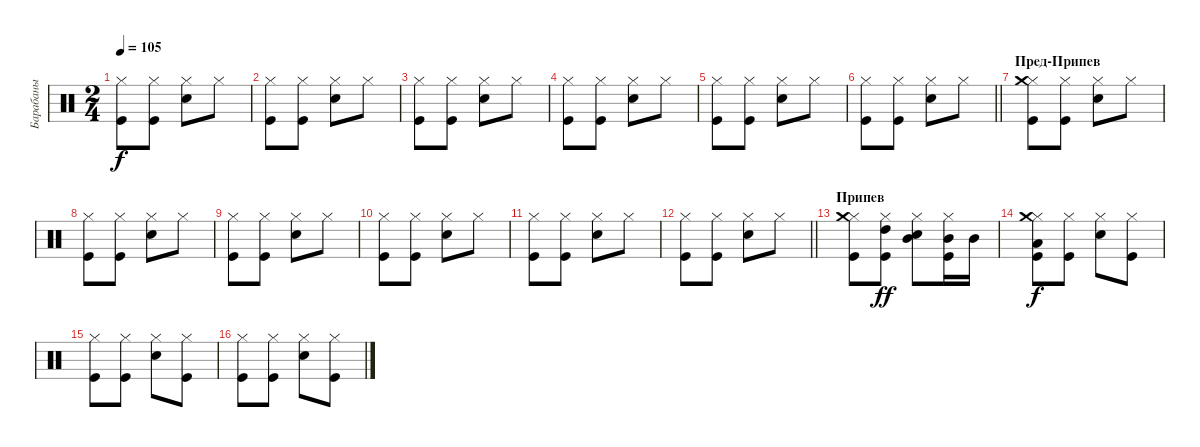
\track ("Барабаны" "Барабаны") {instrument percussion}
\staff {score}
\articulation defaults
\ts (2 4)
\tempo 105
\clef neutral
\ks c
("Kick (hit)" "Hi-Hat (closed)").8{dy f} ("Kick (hit)" "Hi-Hat (closed)").8 ("Snare (hit) 2" "Hi-Hat (closed)").8 "Hi-Hat (closed)".8 |
("Kick (hit)" "Hi-Hat (closed)").8 ("Kick (hit)" "Hi-Hat (closed)").8 ("Snare (hit) 2" "Hi-Hat (closed)").8 "Hi-Hat (closed)".8 |
("Kick (hit)" "Hi-Hat (closed)").8 ("Kick (hit)" "Hi-Hat (closed)").8 ("Snare (hit) 2" "Hi-Hat (closed)").8 "Hi-Hat (closed)".8 |
("Kick (hit)" "Hi-Hat (closed)").8 ("Kick (hit)" "Hi-Hat (closed)").8 ("Snare (hit) 2" "Hi-Hat (closed)").8 "Hi-Hat (closed)".8 |
("Kick (hit)" "Hi-Hat (closed)").8 ("Kick (hit)" "Hi-Hat (closed)").8 ("Snare (hit) 2" "Hi-Hat (closed)").8 "Hi-Hat (closed)".8 |
\barLineRight lightlight
("Kick (hit)" "Hi-Hat (closed)").8 ("Kick (hit)" "Hi-Hat (closed)").8 ("Snare (hit) 2" "Hi-Hat (closed)").8 "Hi-Hat (closed)".8 |
\section ("" "Пред-Припев")
("Kick (hit)" "Hi-Hat (closed)" "Crash medium (hit)").8 ("Kick (hit)" "Hi-Hat (closed)").8 ("Snare (hit) 2" "Hi-Hat (closed)").8 "Hi-Hat (closed)".8 |
("Kick (hit)" "Hi-Hat (closed)").8 ("Kick (hit)" "Hi-Hat (closed)").8 ("Snare (hit) 2" "Hi-Hat (closed)").8 "Hi-Hat (closed)".8 |
("Kick (hit)" "Hi-Hat (closed)").8 ("Kick (hit)" "Hi-Hat (closed)").8 ("Snare (hit) 2" "Hi-Hat (closed)").8 "Hi-Hat (closed)".8 |
("Kick (hit)" "Hi-Hat (closed)").8 ("Kick (hit)" "Hi-Hat (closed)").8 ("Snare (hit) 2" "Hi-Hat (closed)").8 "Hi-Hat (closed)".8 |
("Kick (hit)" "Hi-Hat (closed)").8 ("Kick (hit)" "Hi-Hat (closed)").8 ("Snare (hit) 2" "Hi-Hat (closed)").8 "Hi-Hat (closed)".8 |
\barLineRight lightlight
("Kick (hit)" "Hi-Hat (closed)").8 ("Kick (hit)" "Hi-Hat (closed)").8 ("Snare (hit) 2" "Hi-Hat (closed)").8 "Hi-Hat (closed)".8 |
\section ("" "Припев")
("Kick (hit)" "Hi-Hat (closed)" "Crash medium (hit)").8 ("Kick (hit)" "Hi-Hat (closed)" "High Tom (hit)").8{dy ff} ("Snare (hit) 2" "Hi-Hat (closed)" "Mid Tom (hit)").8 ("Kick (hit)" "Hi-Hat (closed)" "Mid Tom (hit)").16 "Mid Tom (hit)".16 |
("Kick (hit)" "Hi-Hat (closed)" "Low Tom (hit)" "Crash medium (hit)").8{dy f} ("Kick (hit)" "Hi-Hat (closed)").8 ("Snare (hit) 2" "Hi-Hat (closed)").8 ("Kick (hit)" "Hi-Hat (closed)").8 |
("Kick (hit)" "Hi-Hat (closed)").8 ("Kick (hit)" "Hi-Hat (closed)").8 ("Snare (hit) 2" "Hi-Hat (closed)").8 ("Kick (hit)" "Hi-Hat (closed)").8 |
("Kick (hit)" "Hi-Hat (closed)").8 ("Kick (hit)" "Hi-Hat (closed)").8 ("Snare (hit) 2" "Hi-Hat (closed)").8 ("Kick (hit)" "Hi-Hat (closed)").8
